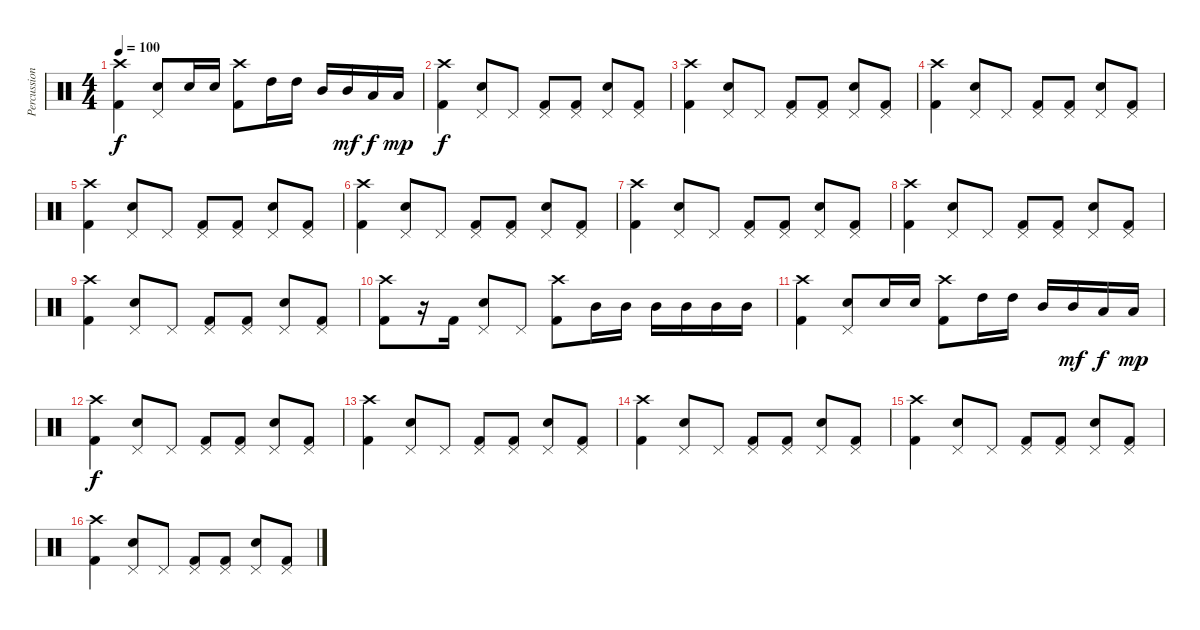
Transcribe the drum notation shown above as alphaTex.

\track ("Percussion" "Percussion") {instrument percussion}
\staff {score}
\articulation defaults
\ts (4 4)
\tempo 100
\clef neutral
\ks c
("Crash high (hit)" "Kick (hit) 2").4{dy f} ("Pedal Hi-Hat (hit)" "Snare (hit) 2").8 "Snare (hit) 2".16 "Snare (hit) 2".16 ("Crash high (hit)" "Kick (hit) 2").8 "High Tom (hit)".16 "High Tom (hit)".16 "Mid Tom (hit)".16 "Mid Tom (hit)".16{dy mf} "Low Tom (hit)".16{dy f} "Low Tom (hit)".16{dy mp} |
("Crash high (hit)" "Kick (hit) 2").4{dy f} ("Pedal Hi-Hat (hit)" "Snare (hit) 2").8 "Pedal Hi-Hat (hit)".8 ("Pedal Hi-Hat (hit)" "Kick (hit) 2").8 ("Pedal Hi-Hat (hit)" "Kick (hit) 2").8 ("Pedal Hi-Hat (hit)" "Snare (hit) 2").8 ("Pedal Hi-Hat (hit)" "Kick (hit) 2").8 |
("Crash high (hit)" "Kick (hit) 2").4 ("Pedal Hi-Hat (hit)" "Snare (hit) 2").8 "Pedal Hi-Hat (hit)".8 ("Pedal Hi-Hat (hit)" "Kick (hit) 2").8 ("Pedal Hi-Hat (hit)" "Kick (hit) 2").8 ("Pedal Hi-Hat (hit)" "Snare (hit) 2").8 ("Pedal Hi-Hat (hit)" "Kick (hit) 2").8 |
("Crash high (hit)" "Kick (hit) 2").4 ("Pedal Hi-Hat (hit)" "Snare (hit) 2").8 "Pedal Hi-Hat (hit)".8 ("Pedal Hi-Hat (hit)" "Kick (hit) 2").8 ("Pedal Hi-Hat (hit)" "Kick (hit) 2").8 ("Pedal Hi-Hat (hit)" "Snare (hit) 2").8 ("Pedal Hi-Hat (hit)" "Kick (hit) 2").8 |
("Crash high (hit)" "Kick (hit) 2").4 ("Pedal Hi-Hat (hit)" "Snare (hit) 2").8 "Pedal Hi-Hat (hit)".8 ("Pedal Hi-Hat (hit)" "Kick (hit) 2").8 ("Pedal Hi-Hat (hit)" "Kick (hit) 2").8 ("Pedal Hi-Hat (hit)" "Snare (hit) 2").8 ("Pedal Hi-Hat (hit)" "Kick (hit) 2").8 |
("Crash high (hit)" "Kick (hit) 2").4 ("Pedal Hi-Hat (hit)" "Snare (hit) 2").8 "Pedal Hi-Hat (hit)".8 ("Pedal Hi-Hat (hit)" "Kick (hit) 2").8 ("Pedal Hi-Hat (hit)" "Kick (hit) 2").8 ("Pedal Hi-Hat (hit)" "Snare (hit) 2").8 ("Pedal Hi-Hat (hit)" "Kick (hit) 2").8 |
("Crash high (hit)" "Kick (hit) 2").4 ("Pedal Hi-Hat (hit)" "Snare (hit) 2").8 "Pedal Hi-Hat (hit)".8 ("Pedal Hi-Hat (hit)" "Kick (hit) 2").8 ("Pedal Hi-Hat (hit)" "Kick (hit) 2").8 ("Pedal Hi-Hat (hit)" "Snare (hit) 2").8 ("Pedal Hi-Hat (hit)" "Kick (hit) 2").8 |
("Crash high (hit)" "Kick (hit) 2").4 ("Pedal Hi-Hat (hit)" "Snare (hit) 2").8 "Pedal Hi-Hat (hit)".8 ("Pedal Hi-Hat (hit)" "Kick (hit) 2").8 ("Pedal Hi-Hat (hit)" "Kick (hit) 2").8 ("Pedal Hi-Hat (hit)" "Snare (hit) 2").8 ("Pedal Hi-Hat (hit)" "Kick (hit) 2").8 |
("Crash high (hit)" "Kick (hit) 2").4 ("Pedal Hi-Hat (hit)" "Snare (hit) 2").8 "Pedal Hi-Hat (hit)".8 ("Pedal Hi-Hat (hit)" "Kick (hit) 2").8 ("Pedal Hi-Hat (hit)" "Kick (hit) 2").8 ("Pedal Hi-Hat (hit)" "Snare (hit) 2").8 ("Pedal Hi-Hat (hit)" "Kick (hit) 2").8 |
("Crash high (hit)" "Kick (hit) 2").8 r.16 "Kick (hit) 2".16 ("Pedal Hi-Hat (hit)" "Snare (hit) 2").8 "Pedal Hi-Hat (hit)".8 ("Crash high (hit)" "Kick (hit) 2").8 "Mid Tom (hit)".16 "Mid Tom (hit)".16 "Mid Tom (hit)".16 "Mid Tom (hit)".16 "Mid Tom (hit)".16 "Mid Tom (hit)".16 |
("Crash high (hit)" "Kick (hit) 2").4 ("Pedal Hi-Hat (hit)" "Snare (hit) 2").8 "Snare (hit) 2".16 "Snare (hit) 2".16 ("Crash high (hit)" "Kick (hit) 2").8 "High Tom (hit)".16 "High Tom (hit)".16 "Mid Tom (hit)".16 "Mid Tom (hit)".16{dy mf} "Low Tom (hit)".16{dy f} "Low Tom (hit)".16{dy mp} |
("Crash high (hit)" "Kick (hit) 2").4{dy f} ("Pedal Hi-Hat (hit)" "Snare (hit) 2").8 "Pedal Hi-Hat (hit)".8 ("Pedal Hi-Hat (hit)" "Kick (hit) 2").8 ("Pedal Hi-Hat (hit)" "Kick (hit) 2").8 ("Pedal Hi-Hat (hit)" "Snare (hit) 2").8 ("Pedal Hi-Hat (hit)" "Kick (hit) 2").8 |
("Crash high (hit)" "Kick (hit) 2").4 ("Pedal Hi-Hat (hit)" "Snare (hit) 2").8 "Pedal Hi-Hat (hit)".8 ("Pedal Hi-Hat (hit)" "Kick (hit) 2").8 ("Pedal Hi-Hat (hit)" "Kick (hit) 2").8 ("Pedal Hi-Hat (hit)" "Snare (hit) 2").8 ("Pedal Hi-Hat (hit)" "Kick (hit) 2").8 |
("Crash high (hit)" "Kick (hit) 2").4 ("Pedal Hi-Hat (hit)" "Snare (hit) 2").8 "Pedal Hi-Hat (hit)".8 ("Pedal Hi-Hat (hit)" "Kick (hit) 2").8 ("Pedal Hi-Hat (hit)" "Kick (hit) 2").8 ("Pedal Hi-Hat (hit)" "Snare (hit) 2").8 ("Pedal Hi-Hat (hit)" "Kick (hit) 2").8 |
("Crash high (hit)" "Kick (hit) 2").4 ("Pedal Hi-Hat (hit)" "Snare (hit) 2").8 "Pedal Hi-Hat (hit)".8 ("Pedal Hi-Hat (hit)" "Kick (hit) 2").8 ("Pedal Hi-Hat (hit)" "Kick (hit) 2").8 ("Pedal Hi-Hat (hit)" "Snare (hit) 2").8 ("Pedal Hi-Hat (hit)" "Kick (hit) 2").8 |
("Crash high (hit)" "Kick (hit) 2").4 ("Pedal Hi-Hat (hit)" "Snare (hit) 2").8 "Pedal Hi-Hat (hit)".8 ("Pedal Hi-Hat (hit)" "Kick (hit) 2").8 ("Pedal Hi-Hat (hit)" "Kick (hit) 2").8 ("Pedal Hi-Hat (hit)" "Snare (hit) 2").8 ("Pedal Hi-Hat (hit)" "Kick (hit) 2").8
